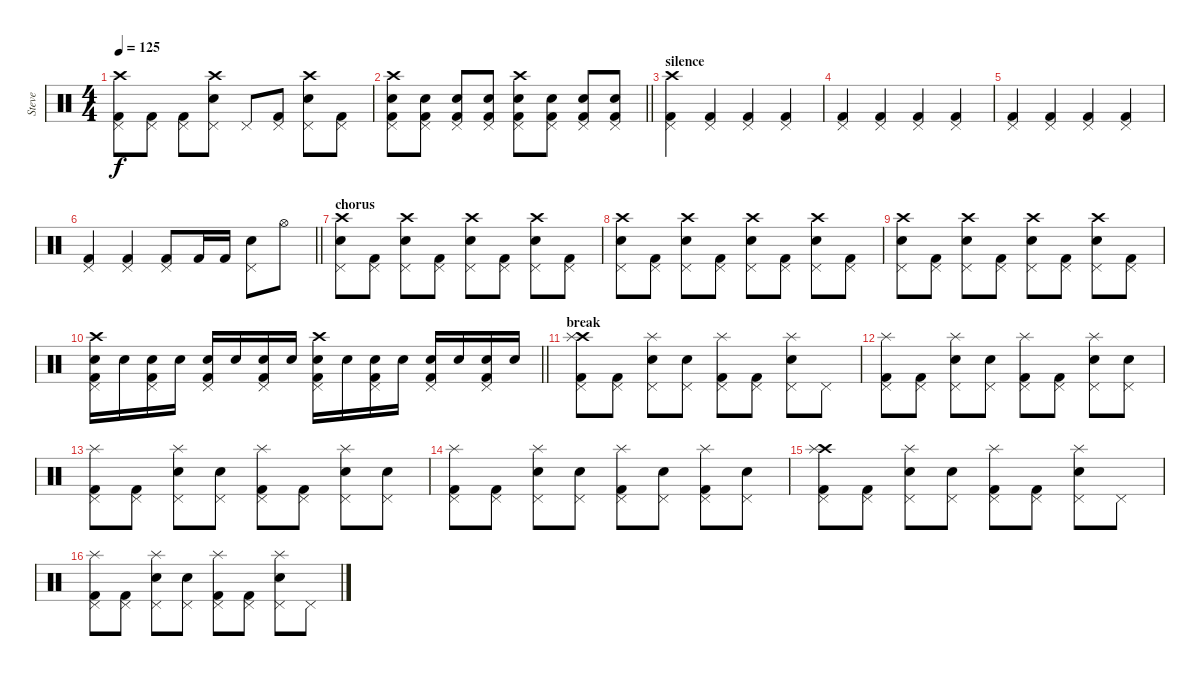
\track ("Steve" "Steve") {instrument percussion}
\staff {score}
\articulation defaults
\ts (4 4)
\tempo 125
\clef neutral
\ks c
("Crash high (hit)" "Pedal Hi-Hat (hit)" "Kick (hit) 2").8{dy f} ("Pedal Hi-Hat (hit)" "Kick (hit) 2").8 ("Pedal Hi-Hat (hit)" "Kick (hit) 2").8 ("Crash high (hit)" "Pedal Hi-Hat (hit)" "Electric Snare (hit)").8 "Pedal Hi-Hat (hit)".8 ("Pedal Hi-Hat (hit)" "Kick (hit) 2").8 ("Crash high (hit)" "Pedal Hi-Hat (hit)" "Electric Snare (hit)").8 ("Pedal Hi-Hat (hit)" "Kick (hit) 2").8 |
\barLineRight lightlight
("Crash high (hit)" "Pedal Hi-Hat (hit)" "Electric Snare (hit)" "Kick (hit) 2").8 ("Pedal Hi-Hat (hit)" "Electric Snare (hit)" "Kick (hit) 2").8 ("Pedal Hi-Hat (hit)" "Electric Snare (hit)" "Kick (hit) 2").8 ("Pedal Hi-Hat (hit)" "Electric Snare (hit)" "Kick (hit) 2").8 ("Crash high (hit)" "Pedal Hi-Hat (hit)" "Electric Snare (hit)" "Kick (hit) 2").8 ("Pedal Hi-Hat (hit)" "Electric Snare (hit)" "Kick (hit) 2").8 ("Pedal Hi-Hat (hit)" "Electric Snare (hit)" "Kick (hit) 2").8 ("Pedal Hi-Hat (hit)" "Electric Snare (hit)" "Kick (hit) 2").8 |
\section ("" "silence")
("Crash high (hit)" "Pedal Hi-Hat (hit)" "Kick (hit) 2").4 ("Pedal Hi-Hat (hit)" "Kick (hit) 2").4 ("Pedal Hi-Hat (hit)" "Kick (hit) 2").4 ("Pedal Hi-Hat (hit)" "Kick (hit) 2").4 |
("Pedal Hi-Hat (hit)" "Kick (hit) 2").4 ("Pedal Hi-Hat (hit)" "Kick (hit) 2").4 ("Pedal Hi-Hat (hit)" "Kick (hit) 2").4 ("Pedal Hi-Hat (hit)" "Kick (hit) 2").4 |
("Pedal Hi-Hat (hit)" "Kick (hit) 2").4 ("Pedal Hi-Hat (hit)" "Kick (hit) 2").4 ("Pedal Hi-Hat (hit)" "Kick (hit) 2").4 ("Pedal Hi-Hat (hit)" "Kick (hit) 2").4 |
\barLineRight lightlight
("Pedal Hi-Hat (hit)" "Kick (hit) 2").4 ("Pedal Hi-Hat (hit)" "Kick (hit) 2").4 ("Pedal Hi-Hat (hit)" "Kick (hit) 2").8 "Kick (hit) 2".16 "Kick (hit) 2".16 ("Pedal Hi-Hat (hit)" "Electric Snare (hit)").8 "Hi-Hat (open)".8 |
\section ("" "chorus")
("Crash high (hit)" "Pedal Hi-Hat (hit)" "Electric Snare (hit)").8 ("Pedal Hi-Hat (hit)" "Kick (hit) 2").8 ("Crash high (hit)" "Pedal Hi-Hat (hit)" "Electric Snare (hit)").8 ("Pedal Hi-Hat (hit)" "Kick (hit) 2").8 ("Crash high (hit)" "Pedal Hi-Hat (hit)" "Electric Snare (hit)").8 ("Pedal Hi-Hat (hit)" "Kick (hit) 2").8 ("Crash high (hit)" "Pedal Hi-Hat (hit)" "Electric Snare (hit)").8 ("Pedal Hi-Hat (hit)" "Kick (hit) 2").8 |
("Crash high (hit)" "Pedal Hi-Hat (hit)" "Electric Snare (hit)").8 ("Pedal Hi-Hat (hit)" "Kick (hit) 2").8 ("Crash high (hit)" "Pedal Hi-Hat (hit)" "Electric Snare (hit)").8 ("Pedal Hi-Hat (hit)" "Kick (hit) 2").8 ("Crash high (hit)" "Pedal Hi-Hat (hit)" "Electric Snare (hit)").8 ("Pedal Hi-Hat (hit)" "Kick (hit) 2").8 ("Crash high (hit)" "Pedal Hi-Hat (hit)" "Electric Snare (hit)").8 ("Pedal Hi-Hat (hit)" "Kick (hit) 2").8 |
("Crash high (hit)" "Pedal Hi-Hat (hit)" "Electric Snare (hit)").8 ("Pedal Hi-Hat (hit)" "Kick (hit) 2").8 ("Crash high (hit)" "Pedal Hi-Hat (hit)" "Electric Snare (hit)").8 ("Pedal Hi-Hat (hit)" "Kick (hit) 2").8 ("Crash high (hit)" "Pedal Hi-Hat (hit)" "Electric Snare (hit)").8 ("Pedal Hi-Hat (hit)" "Kick (hit) 2").8 ("Crash high (hit)" "Pedal Hi-Hat (hit)" "Electric Snare (hit)").8 ("Pedal Hi-Hat (hit)" "Kick (hit) 2").8 |
\barLineRight lightlight
("Crash high (hit)" "Pedal Hi-Hat (hit)" "Electric Snare (hit)" "Kick (hit) 2").16 "Electric Snare (hit)".16 ("Pedal Hi-Hat (hit)" "Electric Snare (hit)" "Kick (hit) 2").16 "Electric Snare (hit)".16 ("Pedal Hi-Hat (hit)" "Electric Snare (hit)" "Kick (hit) 2").16 "Electric Snare (hit)".16 ("Pedal Hi-Hat (hit)" "Electric Snare (hit)" "Kick (hit) 2").16 "Electric Snare (hit)".16 ("Crash high (hit)" "Pedal Hi-Hat (hit)" "Electric Snare (hit)" "Kick (hit) 2").16 "Electric Snare (hit)".16 ("Pedal Hi-Hat (hit)" "Electric Snare (hit)" "Kick (hit) 2").16 "Electric Snare (hit)".16 ("Pedal Hi-Hat (hit)" "Electric Snare (hit)" "Kick (hit) 2").16 "Electric Snare (hit)".16 ("Pedal Hi-Hat (hit)" "Electric Snare (hit)" "Kick (hit) 2").16 "Electric Snare (hit)".16 |
\section ("" "break")
("Pedal Hi-Hat (hit)" "Crash high (hit)" "Splash (hit)" "Kick (hit) 2").8 ("Pedal Hi-Hat (hit)" "Kick (hit) 2").8 ("Pedal Hi-Hat (hit)" "Splash (hit)" "Electric Snare (hit)").8 ("Pedal Hi-Hat (hit)" "Electric Snare (hit)").8 ("Pedal Hi-Hat (hit)" "Splash (hit)" "Kick (hit) 2").8 ("Pedal Hi-Hat (hit)" "Kick (hit) 2").8 ("Pedal Hi-Hat (hit)" "Splash (hit)" "Electric Snare (hit)").8 "Pedal Hi-Hat (hit)".8 |
("Pedal Hi-Hat (hit)" "Splash (hit)" "Kick (hit) 2").8 ("Pedal Hi-Hat (hit)" "Kick (hit) 2").8 ("Pedal Hi-Hat (hit)" "Splash (hit)" "Electric Snare (hit)").8 ("Pedal Hi-Hat (hit)" "Electric Snare (hit)").8 ("Pedal Hi-Hat (hit)" "Splash (hit)" "Kick (hit) 2").8 ("Pedal Hi-Hat (hit)" "Kick (hit) 2").8 ("Pedal Hi-Hat (hit)" "Splash (hit)" "Electric Snare (hit)").8 ("Pedal Hi-Hat (hit)" "Electric Snare (hit)").8 |
("Pedal Hi-Hat (hit)" "Splash (hit)" "Kick (hit) 2").8 ("Pedal Hi-Hat (hit)" "Kick (hit) 2").8 ("Pedal Hi-Hat (hit)" "Splash (hit)" "Electric Snare (hit)").8 ("Pedal Hi-Hat (hit)" "Electric Snare (hit)").8 ("Pedal Hi-Hat (hit)" "Splash (hit)" "Kick (hit) 2").8 ("Pedal Hi-Hat (hit)" "Kick (hit) 2").8 ("Pedal Hi-Hat (hit)" "Splash (hit)" "Electric Snare (hit)").8 ("Pedal Hi-Hat (hit)" "Electric Snare (hit)").8 |
("Pedal Hi-Hat (hit)" "Splash (hit)" "Kick (hit) 2").8 ("Pedal Hi-Hat (hit)" "Kick (hit) 2").8 ("Pedal Hi-Hat (hit)" "Splash (hit)" "Electric Snare (hit)").8 ("Pedal Hi-Hat (hit)" "Electric Snare (hit)").8 ("Pedal Hi-Hat (hit)" "Splash (hit)" "Kick (hit) 2").8 ("Pedal Hi-Hat (hit)" "Electric Snare (hit)").8 ("Pedal Hi-Hat (hit)" "Splash (hit)" "Kick (hit) 2").8 ("Pedal Hi-Hat (hit)" "Electric Snare (hit)").8 |
("Pedal Hi-Hat (hit)" "Crash high (hit)" "Splash (hit)" "Kick (hit) 2").8 ("Pedal Hi-Hat (hit)" "Kick (hit) 2").8 ("Pedal Hi-Hat (hit)" "Splash (hit)" "Electric Snare (hit)").8 ("Pedal Hi-Hat (hit)" "Electric Snare (hit)").8 ("Pedal Hi-Hat (hit)" "Splash (hit)" "Kick (hit) 2").8 ("Pedal Hi-Hat (hit)" "Kick (hit) 2").8 ("Pedal Hi-Hat (hit)" "Splash (hit)" "Electric Snare (hit)").8 "Pedal Hi-Hat (hit)".8 |
("Pedal Hi-Hat (hit)" "Splash (hit)" "Kick (hit) 2").8 ("Pedal Hi-Hat (hit)" "Kick (hit) 2").8 ("Pedal Hi-Hat (hit)" "Splash (hit)" "Electric Snare (hit)").8 ("Pedal Hi-Hat (hit)" "Electric Snare (hit)").8 ("Pedal Hi-Hat (hit)" "Splash (hit)" "Kick (hit) 2").8 ("Pedal Hi-Hat (hit)" "Kick (hit) 2").8 ("Pedal Hi-Hat (hit)" "Splash (hit)" "Electric Snare (hit)").8 "Pedal Hi-Hat (hit)".8
